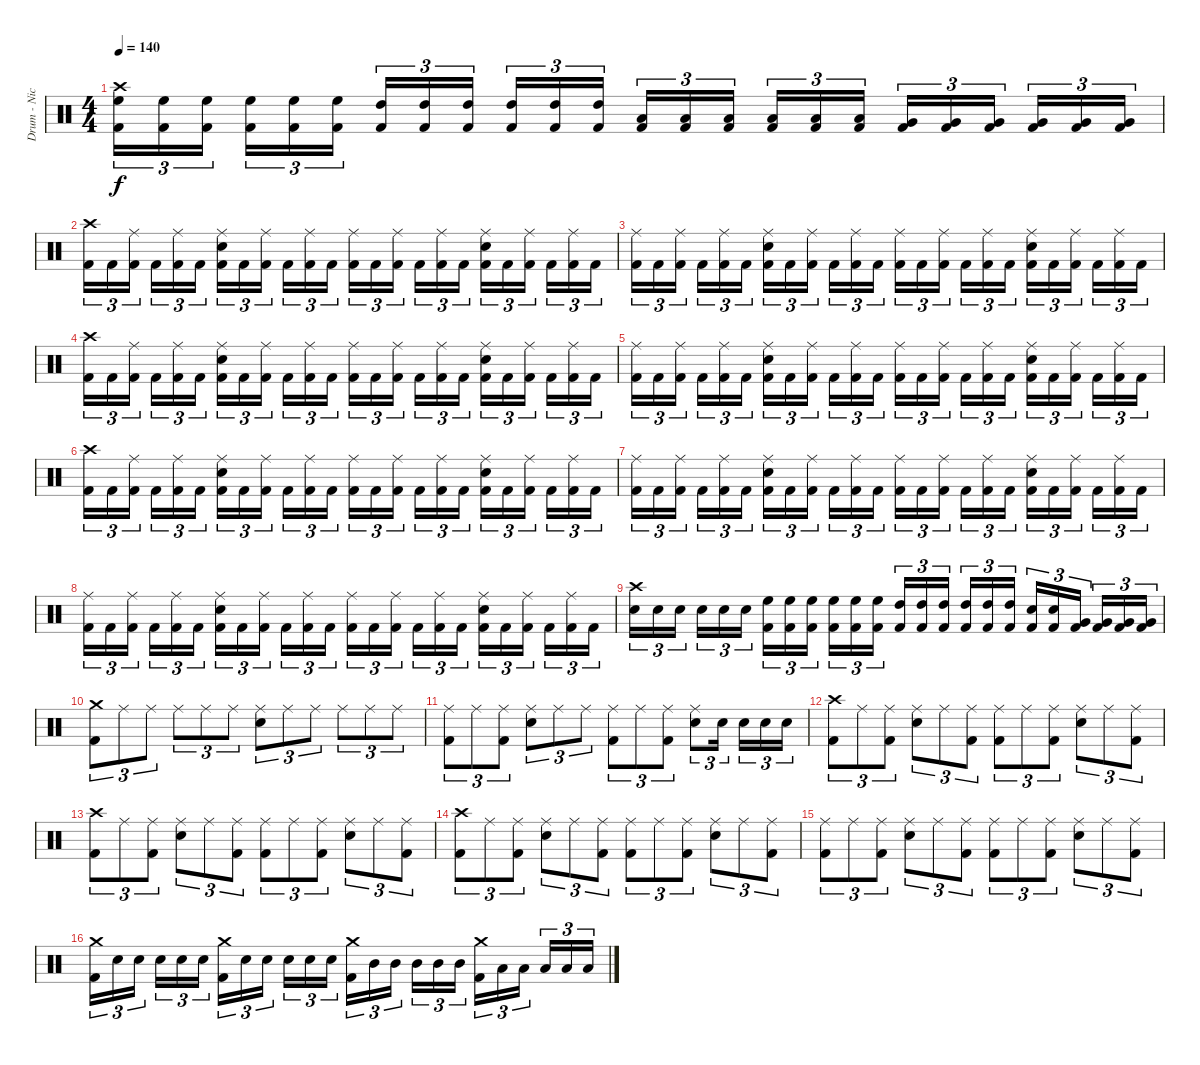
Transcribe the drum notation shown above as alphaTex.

\track ("Drum - Nicholas" "Drum - Nic") {instrument percussion}
\staff {score}
\articulation defaults
\ts (4 4)
\tempo 140
\clef neutral
\ks c
("Crash high (hit)" "High Floor Tom (hit)" "Kick (hit) 2").16{tu (3 2) dy f} ("High Floor Tom (hit)" "Kick (hit) 2").16{tu (3 2)} ("High Floor Tom (hit)" "Kick (hit) 2").16{tu (3 2) beam splitsecondary} ("High Floor Tom (hit)" "Kick (hit) 2").16{tu (3 2)} ("High Floor Tom (hit)" "Kick (hit) 2").16{tu (3 2)} ("High Floor Tom (hit)" "Kick (hit) 2").16{tu (3 2)} ("High Tom (hit)" "Kick (hit) 2").16{tu (3 2)} ("High Tom (hit)" "Kick (hit) 2").16{tu (3 2)} ("High Tom (hit)" "Kick (hit) 2").16{tu (3 2) beam splitsecondary} ("High Tom (hit)" "Kick (hit) 2").16{tu (3 2)} ("High Tom (hit)" "Kick (hit) 2").16{tu (3 2)} ("High Tom (hit)" "Kick (hit) 2").16{tu (3 2)} ("Low Tom (hit)" "Kick (hit) 2").16{tu (3 2)} ("Low Tom (hit)" "Kick (hit) 2").16{tu (3 2)} ("Low Tom (hit)" "Kick (hit) 2").16{tu (3 2) beam splitsecondary} ("Low Tom (hit)" "Kick (hit) 2").16{tu (3 2)} ("Low Tom (hit)" "Kick (hit) 2").16{tu (3 2)} ("Low Tom (hit)" "Kick (hit) 2").16{tu (3 2)} ("Very Low Tom (hit)" "Kick (hit) 2").16{tu (3 2)} ("Very Low Tom (hit)" "Kick (hit) 2").16{tu (3 2)} ("Very Low Tom (hit)" "Kick (hit) 2").16{tu (3 2) beam splitsecondary} ("Very Low Tom (hit)" "Kick (hit) 2").16{tu (3 2)} ("Very Low Tom (hit)" "Kick (hit) 2").16{tu (3 2)} ("Very Low Tom (hit)" "Kick (hit) 2").16{tu (3 2)} |
("Crash high (hit)" "Kick (hit) 2").16{tu (3 2)} "Kick (hit) 2".16{tu (3 2)} ("Ride (middle)" "Kick (hit) 2").16{tu (3 2) beam splitsecondary} "Kick (hit) 2".16{tu (3 2)} ("Ride (middle)" "Kick (hit) 2").16{tu (3 2)} "Kick (hit) 2".16{tu (3 2)} ("Ride (middle)" "Snare (hit) 2" "Kick (hit) 2").16{tu (3 2)} "Kick (hit) 2".16{tu (3 2)} ("Ride (middle)" "Kick (hit) 2").16{tu (3 2) beam splitsecondary} "Kick (hit) 2".16{tu (3 2)} ("Ride (middle)" "Kick (hit) 2").16{tu (3 2)} "Kick (hit) 2".16{tu (3 2)} ("Ride (middle)" "Kick (hit) 2").16{tu (3 2)} "Kick (hit) 2".16{tu (3 2)} ("Ride (middle)" "Kick (hit) 2").16{tu (3 2) beam splitsecondary} "Kick (hit) 2".16{tu (3 2)} ("Ride (middle)" "Kick (hit) 2").16{tu (3 2)} "Kick (hit) 2".16{tu (3 2)} ("Ride (middle)" "Snare (hit) 2" "Kick (hit) 2").16{tu (3 2)} "Kick (hit) 2".16{tu (3 2)} ("Ride (middle)" "Kick (hit) 2").16{tu (3 2) beam splitsecondary} "Kick (hit) 2".16{tu (3 2)} ("Ride (middle)" "Kick (hit) 2").16{tu (3 2)} "Kick (hit) 2".16{tu (3 2)} |
("Ride (middle)" "Kick (hit) 2").16{tu (3 2)} "Kick (hit) 2".16{tu (3 2)} ("Ride (middle)" "Kick (hit) 2").16{tu (3 2) beam splitsecondary} "Kick (hit) 2".16{tu (3 2)} ("Ride (middle)" "Kick (hit) 2").16{tu (3 2)} "Kick (hit) 2".16{tu (3 2)} ("Ride (middle)" "Snare (hit) 2" "Kick (hit) 2").16{tu (3 2)} "Kick (hit) 2".16{tu (3 2)} ("Ride (middle)" "Kick (hit) 2").16{tu (3 2) beam splitsecondary} "Kick (hit) 2".16{tu (3 2)} ("Ride (middle)" "Kick (hit) 2").16{tu (3 2)} "Kick (hit) 2".16{tu (3 2)} ("Ride (middle)" "Kick (hit) 2").16{tu (3 2)} "Kick (hit) 2".16{tu (3 2)} ("Ride (middle)" "Kick (hit) 2").16{tu (3 2) beam splitsecondary} "Kick (hit) 2".16{tu (3 2)} ("Ride (middle)" "Kick (hit) 2").16{tu (3 2)} "Kick (hit) 2".16{tu (3 2)} ("Ride (middle)" "Snare (hit) 2" "Kick (hit) 2").16{tu (3 2)} "Kick (hit) 2".16{tu (3 2)} ("Ride (middle)" "Kick (hit) 2").16{tu (3 2) beam splitsecondary} "Kick (hit) 2".16{tu (3 2)} ("Ride (middle)" "Kick (hit) 2").16{tu (3 2)} "Kick (hit) 2".16{tu (3 2)} |
("Crash high (hit)" "Kick (hit) 2").16{tu (3 2)} "Kick (hit) 2".16{tu (3 2)} ("Ride (middle)" "Kick (hit) 2").16{tu (3 2) beam splitsecondary} "Kick (hit) 2".16{tu (3 2)} ("Ride (middle)" "Kick (hit) 2").16{tu (3 2)} "Kick (hit) 2".16{tu (3 2)} ("Ride (middle)" "Snare (hit) 2" "Kick (hit) 2").16{tu (3 2)} "Kick (hit) 2".16{tu (3 2)} ("Ride (middle)" "Kick (hit) 2").16{tu (3 2) beam splitsecondary} "Kick (hit) 2".16{tu (3 2)} ("Ride (middle)" "Kick (hit) 2").16{tu (3 2)} "Kick (hit) 2".16{tu (3 2)} ("Ride (middle)" "Kick (hit) 2").16{tu (3 2)} "Kick (hit) 2".16{tu (3 2)} ("Ride (middle)" "Kick (hit) 2").16{tu (3 2) beam splitsecondary} "Kick (hit) 2".16{tu (3 2)} ("Ride (middle)" "Kick (hit) 2").16{tu (3 2)} "Kick (hit) 2".16{tu (3 2)} ("Ride (middle)" "Snare (hit) 2" "Kick (hit) 2").16{tu (3 2)} "Kick (hit) 2".16{tu (3 2)} ("Ride (middle)" "Kick (hit) 2").16{tu (3 2) beam splitsecondary} "Kick (hit) 2".16{tu (3 2)} ("Ride (middle)" "Kick (hit) 2").16{tu (3 2)} "Kick (hit) 2".16{tu (3 2)} |
("Ride (middle)" "Kick (hit) 2").16{tu (3 2)} "Kick (hit) 2".16{tu (3 2)} ("Ride (middle)" "Kick (hit) 2").16{tu (3 2) beam splitsecondary} "Kick (hit) 2".16{tu (3 2)} ("Ride (middle)" "Kick (hit) 2").16{tu (3 2)} "Kick (hit) 2".16{tu (3 2)} ("Ride (middle)" "Snare (hit) 2" "Kick (hit) 2").16{tu (3 2)} "Kick (hit) 2".16{tu (3 2)} ("Ride (middle)" "Kick (hit) 2").16{tu (3 2) beam splitsecondary} "Kick (hit) 2".16{tu (3 2)} ("Ride (middle)" "Kick (hit) 2").16{tu (3 2)} "Kick (hit) 2".16{tu (3 2)} ("Ride (middle)" "Kick (hit) 2").16{tu (3 2)} "Kick (hit) 2".16{tu (3 2)} ("Ride (middle)" "Kick (hit) 2").16{tu (3 2) beam splitsecondary} "Kick (hit) 2".16{tu (3 2)} ("Ride (middle)" "Kick (hit) 2").16{tu (3 2)} "Kick (hit) 2".16{tu (3 2)} ("Ride (middle)" "Snare (hit) 2" "Kick (hit) 2").16{tu (3 2)} "Kick (hit) 2".16{tu (3 2)} ("Ride (middle)" "Kick (hit) 2").16{tu (3 2) beam splitsecondary} "Kick (hit) 2".16{tu (3 2)} ("Ride (middle)" "Kick (hit) 2").16{tu (3 2)} "Kick (hit) 2".16{tu (3 2)} |
("Crash high (hit)" "Kick (hit) 2").16{tu (3 2)} "Kick (hit) 2".16{tu (3 2)} ("Ride (middle)" "Kick (hit) 2").16{tu (3 2) beam splitsecondary} "Kick (hit) 2".16{tu (3 2)} ("Ride (middle)" "Kick (hit) 2").16{tu (3 2)} "Kick (hit) 2".16{tu (3 2)} ("Ride (middle)" "Snare (hit) 2" "Kick (hit) 2").16{tu (3 2)} "Kick (hit) 2".16{tu (3 2)} ("Ride (middle)" "Kick (hit) 2").16{tu (3 2) beam splitsecondary} "Kick (hit) 2".16{tu (3 2)} ("Ride (middle)" "Kick (hit) 2").16{tu (3 2)} "Kick (hit) 2".16{tu (3 2)} ("Ride (middle)" "Kick (hit) 2").16{tu (3 2)} "Kick (hit) 2".16{tu (3 2)} ("Ride (middle)" "Kick (hit) 2").16{tu (3 2) beam splitsecondary} "Kick (hit) 2".16{tu (3 2)} ("Ride (middle)" "Kick (hit) 2").16{tu (3 2)} "Kick (hit) 2".16{tu (3 2)} ("Ride (middle)" "Snare (hit) 2" "Kick (hit) 2").16{tu (3 2)} "Kick (hit) 2".16{tu (3 2)} ("Ride (middle)" "Kick (hit) 2").16{tu (3 2) beam splitsecondary} "Kick (hit) 2".16{tu (3 2)} ("Ride (middle)" "Kick (hit) 2").16{tu (3 2)} "Kick (hit) 2".16{tu (3 2)} |
("Ride (middle)" "Kick (hit) 2").16{tu (3 2)} "Kick (hit) 2".16{tu (3 2)} ("Ride (middle)" "Kick (hit) 2").16{tu (3 2) beam splitsecondary} "Kick (hit) 2".16{tu (3 2)} ("Ride (middle)" "Kick (hit) 2").16{tu (3 2)} "Kick (hit) 2".16{tu (3 2)} ("Ride (middle)" "Snare (hit) 2" "Kick (hit) 2").16{tu (3 2)} "Kick (hit) 2".16{tu (3 2)} ("Ride (middle)" "Kick (hit) 2").16{tu (3 2) beam splitsecondary} "Kick (hit) 2".16{tu (3 2)} ("Ride (middle)" "Kick (hit) 2").16{tu (3 2)} "Kick (hit) 2".16{tu (3 2)} ("Ride (middle)" "Kick (hit) 2").16{tu (3 2)} "Kick (hit) 2".16{tu (3 2)} ("Ride (middle)" "Kick (hit) 2").16{tu (3 2) beam splitsecondary} "Kick (hit) 2".16{tu (3 2)} ("Ride (middle)" "Kick (hit) 2").16{tu (3 2)} "Kick (hit) 2".16{tu (3 2)} ("Ride (middle)" "Snare (hit) 2" "Kick (hit) 2").16{tu (3 2)} "Kick (hit) 2".16{tu (3 2)} ("Ride (middle)" "Kick (hit) 2").16{tu (3 2) beam splitsecondary} "Kick (hit) 2".16{tu (3 2)} ("Ride (middle)" "Kick (hit) 2").16{tu (3 2)} "Kick (hit) 2".16{tu (3 2)} |
("Ride (middle)" "Kick (hit) 2").16{tu (3 2)} "Kick (hit) 2".16{tu (3 2)} ("Ride (middle)" "Kick (hit) 2").16{tu (3 2) beam splitsecondary} "Kick (hit) 2".16{tu (3 2)} ("Ride (middle)" "Kick (hit) 2").16{tu (3 2)} "Kick (hit) 2".16{tu (3 2)} ("Ride (middle)" "Snare (hit) 2" "Kick (hit) 2").16{tu (3 2)} "Kick (hit) 2".16{tu (3 2)} ("Ride (middle)" "Kick (hit) 2").16{tu (3 2) beam splitsecondary} "Kick (hit) 2".16{tu (3 2)} ("Ride (middle)" "Kick (hit) 2").16{tu (3 2)} "Kick (hit) 2".16{tu (3 2)} ("Ride (middle)" "Kick (hit) 2").16{tu (3 2)} "Kick (hit) 2".16{tu (3 2)} ("Ride (middle)" "Kick (hit) 2").16{tu (3 2) beam splitsecondary} "Kick (hit) 2".16{tu (3 2)} ("Ride (middle)" "Kick (hit) 2").16{tu (3 2)} "Kick (hit) 2".16{tu (3 2)} ("Ride (middle)" "Snare (hit) 2" "Kick (hit) 2").16{tu (3 2)} "Kick (hit) 2".16{tu (3 2)} ("Ride (middle)" "Kick (hit) 2").16{tu (3 2) beam splitsecondary} "Kick (hit) 2".16{tu (3 2)} ("Ride (middle)" "Kick (hit) 2").16{tu (3 2)} "Kick (hit) 2".16{tu (3 2)} |
("Crash high (hit)" "Snare (hit) 2").16{tu (3 2)} "Snare (hit) 2".16{tu (3 2)} "Snare (hit) 2".16{tu (3 2) beam splitsecondary} "Snare (hit) 2".16{tu (3 2)} "Snare (hit) 2".16{tu (3 2)} "Snare (hit) 2".16{tu (3 2)} ("High Floor Tom (hit)" "Kick (hit) 2").16{tu (3 2)} ("High Floor Tom (hit)" "Kick (hit) 2").16{tu (3 2)} ("High Floor Tom (hit)" "Kick (hit) 2").16{tu (3 2) beam splitsecondary} ("High Floor Tom (hit)" "Kick (hit) 2").16{tu (3 2)} ("High Floor Tom (hit)" "Kick (hit) 2").16{tu (3 2)} ("High Floor Tom (hit)" "Kick (hit) 2").16{tu (3 2)} ("High Tom (hit)" "Kick (hit) 2").16{tu (3 2)} ("High Tom (hit)" "Kick (hit) 2").16{tu (3 2)} ("High Tom (hit)" "Kick (hit) 2").16{tu (3 2) beam splitsecondary} ("High Tom (hit)" "Kick (hit) 2").16{tu (3 2)} ("High Tom (hit)" "Kick (hit) 2").16{tu (3 2)} ("High Tom (hit)" "Kick (hit) 2").16{tu (3 2)} ("Snare (hit) 2" "Kick (hit) 2").16{tu (3 2)} ("Snare (hit) 2" "Kick (hit) 2").16{tu (3 2)} ("Very Low Tom (hit)" "Kick (hit) 2").16{tu (3 2) beam splitsecondary} ("Very Low Tom (hit)" "Kick (hit) 2").16{tu (3 2)} ("Very Low Tom (hit)" "Kick (hit) 2").16{tu (3 2)} ("Very Low Tom (hit)" "Kick (hit) 2").16{tu (3 2)} |
("Crash medium (hit)" "Kick (hit) 2").8{tu (3 2)} "Ride (middle)".8{tu (3 2)} "Ride (middle)".8{tu (3 2)} "Ride (middle)".8{tu (3 2)} "Ride (middle)".8{tu (3 2)} "Ride (middle)".8{tu (3 2)} ("Ride (middle)" "Snare (hit) 2").8{tu (3 2)} "Ride (middle)".8{tu (3 2)} "Ride (middle)".8{tu (3 2)} "Ride (middle)".8{tu (3 2)} "Ride (middle)".8{tu (3 2)} "Ride (middle)".8{tu (3 2)} |
("Ride (middle)" "Kick (hit) 2").8{tu (3 2)} "Ride (middle)".8{tu (3 2)} ("Ride (middle)" "Kick (hit) 2").8{tu (3 2)} ("Ride (middle)" "Snare (hit) 2").8{tu (3 2)} "Ride (middle)".8{tu (3 2)} "Ride (middle)".8{tu (3 2)} ("Ride (middle)" "Kick (hit) 2").8{tu (3 2)} "Ride (middle)".8{tu (3 2)} ("Ride (middle)" "Kick (hit) 2").8{tu (3 2)} ("Ride (middle)" "Snare (hit) 2").8{tu (3 2)} "Snare (hit) 2".16{tu (3 2) beam splitsecondary} "Snare (hit) 2".16{tu (3 2)} "Snare (hit) 2".16{tu (3 2)} "Snare (hit) 2".16{tu (3 2)} |
("Crash high (hit)" "Kick (hit) 2").8{tu (3 2)} "Ride (middle)".8{tu (3 2)} ("Ride (middle)" "Kick (hit) 2").8{tu (3 2)} ("Ride (middle)" "Snare (hit) 2").8{tu (3 2)} "Ride (middle)".8{tu (3 2)} ("Ride (middle)" "Kick (hit) 2").8{tu (3 2)} ("Ride (middle)" "Kick (hit) 2").8{tu (3 2)} "Ride (middle)".8{tu (3 2)} ("Ride (middle)" "Kick (hit) 2").8{tu (3 2)} ("Ride (middle)" "Snare (hit) 2").8{tu (3 2)} "Ride (middle)".8{tu (3 2)} ("Ride (middle)" "Kick (hit) 2").8{tu (3 2)} |
("Crash high (hit)" "Kick (hit) 2").8{tu (3 2)} "Ride (middle)".8{tu (3 2)} ("Ride (middle)" "Kick (hit) 2").8{tu (3 2)} ("Ride (middle)" "Snare (hit) 2").8{tu (3 2)} "Ride (middle)".8{tu (3 2)} ("Ride (middle)" "Kick (hit) 2").8{tu (3 2)} ("Ride (middle)" "Kick (hit) 2").8{tu (3 2)} "Ride (middle)".8{tu (3 2)} ("Ride (middle)" "Kick (hit) 2").8{tu (3 2)} ("Ride (middle)" "Snare (hit) 2").8{tu (3 2)} "Ride (middle)".8{tu (3 2)} ("Ride (middle)" "Kick (hit) 2").8{tu (3 2)} |
("Crash high (hit)" "Kick (hit) 2").8{tu (3 2)} "Ride (middle)".8{tu (3 2)} ("Ride (middle)" "Kick (hit) 2").8{tu (3 2)} ("Ride (middle)" "Snare (hit) 2").8{tu (3 2)} "Ride (middle)".8{tu (3 2)} ("Ride (middle)" "Kick (hit) 2").8{tu (3 2)} ("Ride (middle)" "Kick (hit) 2").8{tu (3 2)} "Ride (middle)".8{tu (3 2)} ("Ride (middle)" "Kick (hit) 2").8{tu (3 2)} ("Ride (middle)" "Snare (hit) 2").8{tu (3 2)} "Ride (middle)".8{tu (3 2)} ("Ride (middle)" "Kick (hit) 2").8{tu (3 2)} |
("Ride (middle)" "Kick (hit) 2").8{tu (3 2)} "Ride (middle)".8{tu (3 2)} ("Ride (middle)" "Kick (hit) 2").8{tu (3 2)} ("Ride (middle)" "Snare (hit) 2").8{tu (3 2)} "Ride (middle)".8{tu (3 2)} ("Ride (middle)" "Kick (hit) 2").8{tu (3 2)} ("Ride (middle)" "Kick (hit) 2").8{tu (3 2)} "Ride (middle)".8{tu (3 2)} ("Ride (middle)" "Kick (hit) 2").8{tu (3 2)} ("Ride (middle)" "Snare (hit) 2").8{tu (3 2)} "Ride (middle)".8{tu (3 2)} ("Ride (middle)" "Kick (hit) 2").8{tu (3 2)} |
("Crash medium (hit)" "Kick (hit) 2").16{tu (3 2)} "Snare (hit) 2".16{tu (3 2)} "Snare (hit) 2".16{tu (3 2) beam splitsecondary} "Snare (hit) 2".16{tu (3 2)} "Snare (hit) 2".16{tu (3 2)} "Snare (hit) 2".16{tu (3 2)} ("Crash medium (hit)" "Kick (hit) 2").16{tu (3 2)} "Snare (hit) 2".16{tu (3 2)} "Snare (hit) 2".16{tu (3 2) beam splitsecondary} "Snare (hit) 2".16{tu (3 2)} "Snare (hit) 2".16{tu (3 2)} "Snare (hit) 2".16{tu (3 2)} ("Crash medium (hit)" "Kick (hit) 2").16{tu (3 2)} "Mid Tom (hit)".16{tu (3 2)} "Mid Tom (hit)".16{tu (3 2) beam splitsecondary} "Mid Tom (hit)".16{tu (3 2)} "Mid Tom (hit)".16{tu (3 2)} "Mid Tom (hit)".16{tu (3 2)} ("Crash medium (hit)" "Kick (hit) 2").16{tu (3 2)} "Low Tom (hit)".16{tu (3 2)} "Low Tom (hit)".16{tu (3 2) beam splitsecondary} "Low Tom (hit)".16{tu (3 2)} "Low Tom (hit)".16{tu (3 2)} "Low Tom (hit)".16{tu (3 2)}
